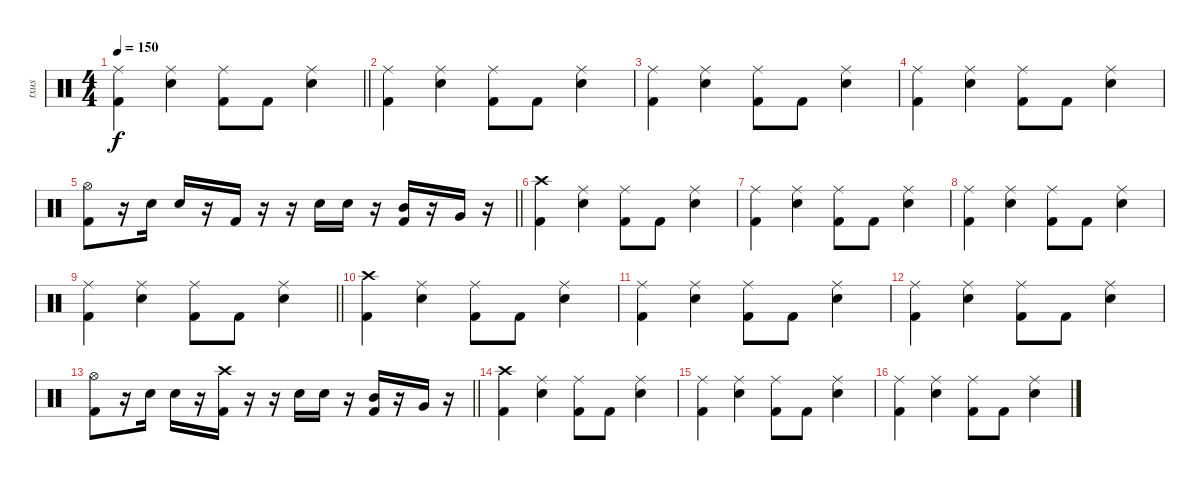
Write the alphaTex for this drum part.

\track ("txus" "txus") {instrument percussion}
\staff {score}
\articulation defaults
\ts (4 4)
\tempo 150
\clef neutral
\barLineRight lightlight
\ks c
("Kick (hit) 2" "Ride (middle)").4{dy f} ("Ride (middle)" "Electric Snare (hit)").4 ("Kick (hit) 2" "Ride (middle)").8 "Kick (hit) 2".8 ("Ride (middle)" "Electric Snare (hit)").4 |
("Kick (hit) 2" "Ride (middle)").4 ("Ride (middle)" "Electric Snare (hit)").4 ("Kick (hit) 2" "Ride (middle)").8 "Kick (hit) 2".8 ("Ride (middle)" "Electric Snare (hit)").4 |
("Kick (hit) 2" "Ride (middle)").4 ("Ride (middle)" "Electric Snare (hit)").4 ("Kick (hit) 2" "Ride (middle)").8 "Kick (hit) 2".8 ("Ride (middle)" "Electric Snare (hit)").4 |
("Kick (hit) 2" "Ride (middle)").4 ("Ride (middle)" "Electric Snare (hit)").4 ("Kick (hit) 2" "Ride (middle)").8 "Kick (hit) 2".8 ("Ride (middle)" "Electric Snare (hit)").4 |
\barLineRight lightlight
("Kick (hit) 2" "Hi-Hat (open)").8 r.16 "Electric Snare (hit)".16 "Electric Snare (hit)".16 r.16 "Kick (hit) 2".16 r.16 r.16 "Electric Snare (hit)".16 "Electric Snare (hit)".16 r.16 ("Kick (hit) 2" "Mid Tom (hit)").16 r.16 "Very Low Tom (hit)".16 r.16 |
("Kick (hit) 2" "Crash high (hit)").4 ("Ride (middle)" "Electric Snare (hit)").4 ("Kick (hit) 2" "Ride (middle)").8 "Kick (hit) 2".8 ("Ride (middle)" "Electric Snare (hit)").4 |
("Kick (hit) 2" "Ride (middle)").4 ("Ride (middle)" "Electric Snare (hit)").4 ("Kick (hit) 2" "Ride (middle)").8 "Kick (hit) 2".8 ("Ride (middle)" "Electric Snare (hit)").4 |
("Kick (hit) 2" "Ride (middle)").4 ("Ride (middle)" "Electric Snare (hit)").4 ("Kick (hit) 2" "Ride (middle)").8 "Kick (hit) 2".8 ("Ride (middle)" "Electric Snare (hit)").4 |
\barLineRight lightlight
("Kick (hit) 2" "Ride (middle)").4 ("Ride (middle)" "Electric Snare (hit)").4 ("Kick (hit) 2" "Ride (middle)").8 "Kick (hit) 2".8 ("Ride (middle)" "Electric Snare (hit)").4 |
("Kick (hit) 2" "Crash high (hit)").4 ("Ride (middle)" "Electric Snare (hit)").4 ("Kick (hit) 2" "Ride (middle)").8 "Kick (hit) 2".8 ("Ride (middle)" "Electric Snare (hit)").4 |
("Kick (hit) 2" "Ride (middle)").4 ("Ride (middle)" "Electric Snare (hit)").4 ("Kick (hit) 2" "Ride (middle)").8 "Kick (hit) 2".8 ("Ride (middle)" "Electric Snare (hit)").4 |
("Kick (hit) 2" "Ride (middle)").4 ("Ride (middle)" "Electric Snare (hit)").4 ("Kick (hit) 2" "Ride (middle)").8 "Kick (hit) 2".8 ("Ride (middle)" "Electric Snare (hit)").4 |
\barLineRight lightlight
("Kick (hit) 2" "Hi-Hat (open)").8 r.16 "Electric Snare (hit)".16 "Electric Snare (hit)".16 r.16 ("Kick (hit) 2" "Crash high (hit)").16 r.16 r.16 "Electric Snare (hit)".16 "Electric Snare (hit)".16 r.16 ("Kick (hit) 2" "Mid Tom (hit)").16 r.16 "Very Low Tom (hit)".16 r.16 |
("Kick (hit) 2" "Crash high (hit)").4 ("Ride (middle)" "Electric Snare (hit)").4 ("Kick (hit) 2" "Ride (middle)").8 "Kick (hit) 2".8 ("Ride (middle)" "Electric Snare (hit)").4 |
("Kick (hit) 2" "Ride (middle)").4 ("Ride (middle)" "Electric Snare (hit)").4 ("Kick (hit) 2" "Ride (middle)").8 "Kick (hit) 2".8 ("Ride (middle)" "Electric Snare (hit)").4 |
("Kick (hit) 2" "Ride (middle)").4 ("Ride (middle)" "Electric Snare (hit)").4 ("Kick (hit) 2" "Ride (middle)").8 "Kick (hit) 2".8 ("Ride (middle)" "Electric Snare (hit)").4
